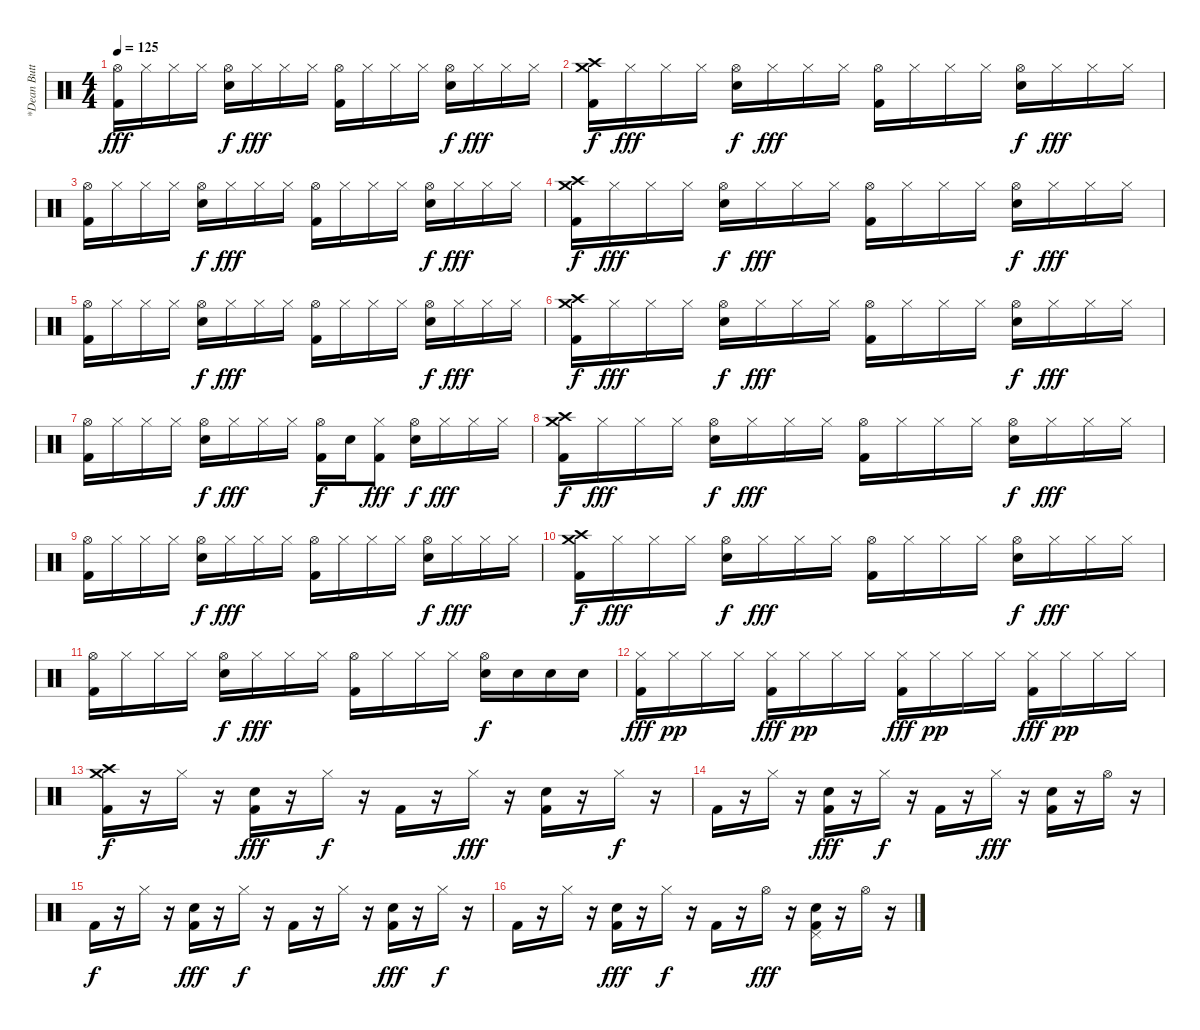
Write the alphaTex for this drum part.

\track ("*Dean Butterworth (Drum)" "*Dean Butt") {instrument percussion}
\staff {score}
\articulation defaults
\ts (4 4)
\tempo 125
\clef neutral
\ks c
("Hi-Hat (open)" "Kick (hit) 2").16{dy fff} "Hi-Hat (closed)".16 "Hi-Hat (closed)".16 "Hi-Hat (closed)".16 ("Hi-Hat (open)" "Electric Snare (hit)").16{dy f} "Hi-Hat (closed)".16{dy fff} "Hi-Hat (closed)".16 "Hi-Hat (closed)".16 ("Hi-Hat (open)" "Kick (hit) 2").16 "Hi-Hat (closed)".16 "Hi-Hat (closed)".16 "Hi-Hat (closed)".16 ("Hi-Hat (open)" "Electric Snare (hit)").16{dy f} "Hi-Hat (closed)".16{dy fff} "Hi-Hat (closed)".16 "Hi-Hat (closed)".16 |
("Crash high (hit)" "Crash medium (hit)" "Kick (hit) 2").16{dy f} "Hi-Hat (closed)".16{dy fff} "Hi-Hat (closed)".16 "Hi-Hat (closed)".16 ("Hi-Hat (open)" "Electric Snare (hit)").16{dy f} "Hi-Hat (closed)".16{dy fff} "Hi-Hat (closed)".16 "Hi-Hat (closed)".16 ("Hi-Hat (open)" "Kick (hit) 2").16 "Hi-Hat (closed)".16 "Hi-Hat (closed)".16 "Hi-Hat (closed)".16 ("Hi-Hat (open)" "Electric Snare (hit)").16{dy f} "Hi-Hat (closed)".16{dy fff} "Hi-Hat (closed)".16 "Hi-Hat (closed)".16 |
("Hi-Hat (open)" "Kick (hit) 2").16 "Hi-Hat (closed)".16 "Hi-Hat (closed)".16 "Hi-Hat (closed)".16 ("Hi-Hat (open)" "Electric Snare (hit)").16{dy f} "Hi-Hat (closed)".16{dy fff} "Hi-Hat (closed)".16 "Hi-Hat (closed)".16 ("Hi-Hat (open)" "Kick (hit) 2").16 "Hi-Hat (closed)".16 "Hi-Hat (closed)".16 "Hi-Hat (closed)".16 ("Hi-Hat (open)" "Electric Snare (hit)").16{dy f} "Hi-Hat (closed)".16{dy fff} "Hi-Hat (closed)".16 "Hi-Hat (closed)".16 |
("Crash high (hit)" "Crash medium (hit)" "Kick (hit) 2").16{dy f} "Hi-Hat (closed)".16{dy fff} "Hi-Hat (closed)".16 "Hi-Hat (closed)".16 ("Hi-Hat (open)" "Electric Snare (hit)").16{dy f} "Hi-Hat (closed)".16{dy fff} "Hi-Hat (closed)".16 "Hi-Hat (closed)".16 ("Hi-Hat (open)" "Kick (hit) 2").16 "Hi-Hat (closed)".16 "Hi-Hat (closed)".16 "Hi-Hat (closed)".16 ("Hi-Hat (open)" "Electric Snare (hit)").16{dy f} "Hi-Hat (closed)".16{dy fff} "Hi-Hat (closed)".16 "Hi-Hat (closed)".16 |
("Hi-Hat (open)" "Kick (hit) 2").16 "Hi-Hat (closed)".16 "Hi-Hat (closed)".16 "Hi-Hat (closed)".16 ("Hi-Hat (open)" "Electric Snare (hit)").16{dy f} "Hi-Hat (closed)".16{dy fff} "Hi-Hat (closed)".16 "Hi-Hat (closed)".16 ("Hi-Hat (open)" "Kick (hit) 2").16 "Hi-Hat (closed)".16 "Hi-Hat (closed)".16 "Hi-Hat (closed)".16 ("Hi-Hat (open)" "Electric Snare (hit)").16{dy f} "Hi-Hat (closed)".16{dy fff} "Hi-Hat (closed)".16 "Hi-Hat (closed)".16 |
("Crash high (hit)" "Crash medium (hit)" "Kick (hit) 2").16{dy f} "Hi-Hat (closed)".16{dy fff} "Hi-Hat (closed)".16 "Hi-Hat (closed)".16 ("Hi-Hat (open)" "Electric Snare (hit)").16{dy f} "Hi-Hat (closed)".16{dy fff} "Hi-Hat (closed)".16 "Hi-Hat (closed)".16 ("Hi-Hat (open)" "Kick (hit) 2").16 "Hi-Hat (closed)".16 "Hi-Hat (closed)".16 "Hi-Hat (closed)".16 ("Hi-Hat (open)" "Electric Snare (hit)").16{dy f} "Hi-Hat (closed)".16{dy fff} "Hi-Hat (closed)".16 "Hi-Hat (closed)".16 |
("Hi-Hat (open)" "Kick (hit) 2").16 "Hi-Hat (closed)".16 "Hi-Hat (closed)".16 "Hi-Hat (closed)".16 ("Hi-Hat (open)" "Electric Snare (hit)").16{dy f} "Hi-Hat (closed)".16{dy fff} "Hi-Hat (closed)".16 "Hi-Hat (closed)".16 ("Hi-Hat (open)" "Kick (hit) 2").16{dy f} "Electric Snare (hit)".16 ("Hi-Hat (closed)" "Kick (hit) 2").8{dy fff} ("Hi-Hat (open)" "Electric Snare (hit)").16{dy f} "Hi-Hat (closed)".16{dy fff} "Hi-Hat (closed)".16 "Hi-Hat (closed)".16 |
("Crash high (hit)" "Crash medium (hit)" "Kick (hit) 2").16{dy f} "Hi-Hat (closed)".16{dy fff} "Hi-Hat (closed)".16 "Hi-Hat (closed)".16 ("Hi-Hat (open)" "Electric Snare (hit)").16{dy f} "Hi-Hat (closed)".16{dy fff} "Hi-Hat (closed)".16 "Hi-Hat (closed)".16 ("Hi-Hat (open)" "Kick (hit) 2").16 "Hi-Hat (closed)".16 "Hi-Hat (closed)".16 "Hi-Hat (closed)".16 ("Hi-Hat (open)" "Electric Snare (hit)").16{dy f} "Hi-Hat (closed)".16{dy fff} "Hi-Hat (closed)".16 "Hi-Hat (closed)".16 |
("Hi-Hat (open)" "Kick (hit) 2").16 "Hi-Hat (closed)".16 "Hi-Hat (closed)".16 "Hi-Hat (closed)".16 ("Hi-Hat (open)" "Electric Snare (hit)").16{dy f} "Hi-Hat (closed)".16{dy fff} "Hi-Hat (closed)".16 "Hi-Hat (closed)".16 ("Hi-Hat (open)" "Kick (hit) 2").16 "Hi-Hat (closed)".16 "Hi-Hat (closed)".16 "Hi-Hat (closed)".16 ("Hi-Hat (open)" "Electric Snare (hit)").16{dy f} "Hi-Hat (closed)".16{dy fff} "Hi-Hat (closed)".16 "Hi-Hat (closed)".16 |
("Crash high (hit)" "Crash medium (hit)" "Kick (hit) 2").16{dy f} "Hi-Hat (closed)".16{dy fff} "Hi-Hat (closed)".16 "Hi-Hat (closed)".16 ("Hi-Hat (open)" "Electric Snare (hit)").16{dy f} "Hi-Hat (closed)".16{dy fff} "Hi-Hat (closed)".16 "Hi-Hat (closed)".16 ("Hi-Hat (open)" "Kick (hit) 2").16 "Hi-Hat (closed)".16 "Hi-Hat (closed)".16 "Hi-Hat (closed)".16 ("Hi-Hat (open)" "Electric Snare (hit)").16{dy f} "Hi-Hat (closed)".16{dy fff} "Hi-Hat (closed)".16 "Hi-Hat (closed)".16 |
("Hi-Hat (open)" "Kick (hit) 2").16 "Hi-Hat (closed)".16 "Hi-Hat (closed)".16 "Hi-Hat (closed)".16 ("Hi-Hat (open)" "Electric Snare (hit)").16{dy f} "Hi-Hat (closed)".16{dy fff} "Hi-Hat (closed)".16 "Hi-Hat (closed)".16 ("Hi-Hat (open)" "Kick (hit) 2").16 "Hi-Hat (closed)".16 "Hi-Hat (closed)".16 "Hi-Hat (closed)".16 ("Hi-Hat (open)" "Electric Snare (hit)").16{dy f} "Electric Snare (hit)".16 "Electric Snare (hit)".16 "Electric Snare (hit)".16 |
("Hi-Hat (closed)" "Kick (hit) 2").16{dy fff} "Hi-Hat (closed)".16{dy pp} "Hi-Hat (closed)".16 "Hi-Hat (closed)".16 ("Hi-Hat (closed)" "Kick (hit) 2").16{dy fff} "Hi-Hat (closed)".16{dy pp} "Hi-Hat (closed)".16 "Hi-Hat (closed)".16 ("Hi-Hat (closed)" "Kick (hit) 2").16{dy fff} "Hi-Hat (closed)".16{dy pp} "Hi-Hat (closed)".16 "Hi-Hat (closed)".16 ("Hi-Hat (closed)" "Kick (hit) 2").16{dy fff} "Hi-Hat (closed)".16{dy pp} "Hi-Hat (closed)".16 "Hi-Hat (closed)".16 |
("Crash high (hit)" "Crash medium (hit)" "Kick (hit) 2").16{dy f} r.16 "Hi-Hat (closed)".16 r.16 ("Snare (hit) 2" "Kick (hit) 2").16{dy fff} r.16 "Hi-Hat (closed)".16{dy f} r.16 "Kick (hit) 2".16 r.16 "Hi-Hat (closed)".16{dy fff} r.16 ("Snare (hit) 2" "Kick (hit) 2").16 r.16 "Hi-Hat (closed)".16{dy f} r.16 |
"Kick (hit) 2".16 r.16 "Hi-Hat (closed)".16 r.16 ("Snare (hit) 2" "Kick (hit) 2").16{dy fff} r.16 "Hi-Hat (closed)".16{dy f} r.16 "Kick (hit) 2".16 r.16 "Hi-Hat (closed)".16{dy fff} r.16 ("Snare (hit) 2" "Kick (hit) 2").16 r.16 "Hi-Hat (open)".16 r.16 |
"Kick (hit) 2".16{dy f} r.16 "Hi-Hat (closed)".16 r.16 ("Snare (hit) 2" "Kick (hit) 2").16{dy fff} r.16 "Hi-Hat (closed)".16{dy f} r.16 "Kick (hit) 2".16 r.16 "Hi-Hat (closed)".16 r.16 ("Snare (hit) 2" "Kick (hit) 2").16{dy fff} r.16 "Hi-Hat (closed)".16{dy f} r.16 |
"Kick (hit) 2".16 r.16 "Hi-Hat (closed)".16 r.16 ("Snare (hit) 2" "Kick (hit) 2").16{dy fff} r.16 "Hi-Hat (closed)".16{dy f} r.16 "Kick (hit) 2".16 r.16 "Hi-Hat (open)".16{dy fff} r.16 ("Pedal Hi-Hat (hit)" "Snare (hit) 2" "Kick (hit) 2").16 r.16 "Hi-Hat (open)".16 r.16
